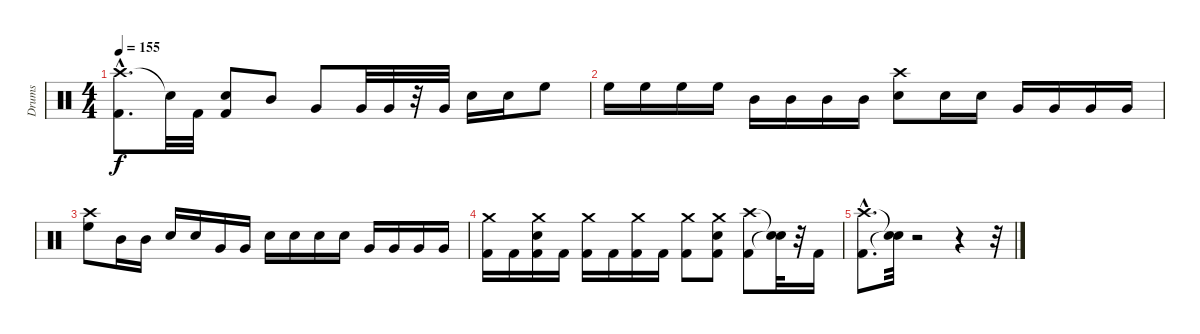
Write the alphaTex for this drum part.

\track ("Drums" "Drums") {instrument percussion}
\staff {score}
\articulation defaults
\ts (4 4)
\tempo 155
\clef neutral
\ks c
("Crash high (hit)"{hac} "Kick (hit) 2").8{d dy f} "Snare (hit)"{t}.32 "Kick (hit) 2".32 ("Kick (hit) 2" "Snare (hit) 2").8 "Mid Tom (hit)".8 "Very Low Tom (hit)".8 "Very Low Tom (hit)".32 "Very Low Tom (hit)".32 r.32 "Very Low Tom (hit)".32 "Snare (hit) 2".16 "Snare (hit) 2".16 "High Floor Tom (hit)".8 |
"High Floor Tom (hit)".16 "High Floor Tom (hit)".16 "High Floor Tom (hit)".16 "High Floor Tom (hit)".16 "Mid Tom (hit)".16 "Mid Tom (hit)".16 "Mid Tom (hit)".16 "Mid Tom (hit)".16 ("Snare (hit) 2" "Crash high (hit)").8 "Snare (hit) 2".16 "Snare (hit) 2".16 "Very Low Tom (hit)".16 "Very Low Tom (hit)".16 "Very Low Tom (hit)".16 "Very Low Tom (hit)".16 |
("High Floor Tom (hit)" "Crash high (hit)").8 "Mid Tom (hit)".16 "Mid Tom (hit)".16 "Snare (hit) 2".16 "Snare (hit) 2".16 "Very Low Tom (hit)".16 "Very Low Tom (hit)".16 "Snare (hit) 2".16 "Snare (hit) 2".16 "Snare (hit) 2".16 "Snare (hit) 2".16 "Very Low Tom (hit)".16 "Very Low Tom (hit)".16 "Very Low Tom (hit)".16 "Very Low Tom (hit)".16 |
("Crash medium (hit)" "Kick (hit) 2").16 "Kick (hit) 2".16 ("Crash medium (hit)" "Kick (hit) 2" "Snare (hit) 2").16 "Kick (hit) 2".16 ("Crash medium (hit)" "Kick (hit) 2").16 "Kick (hit) 2".16 ("Crash medium (hit)" "Kick (hit) 2").16 "Kick (hit) 2".16 ("Crash medium (hit)" "Kick (hit) 2").8 ("Crash medium (hit)" "Kick (hit) 2" "Snare (hit) 2").8 ("Kick (hit) 2" "Crash high (hit)").8 ("Snare (hit)"{t} "Snare (hit)"{t}).32 r.32 "Kick (hit) 2".16 |
("Crash high (hit)"{hac} "Kick (hit) 2"{hac}).8{d} ("Snare (hit)"{t} "Snare (hit)"{t}).32 r.2 r.4 r.32
